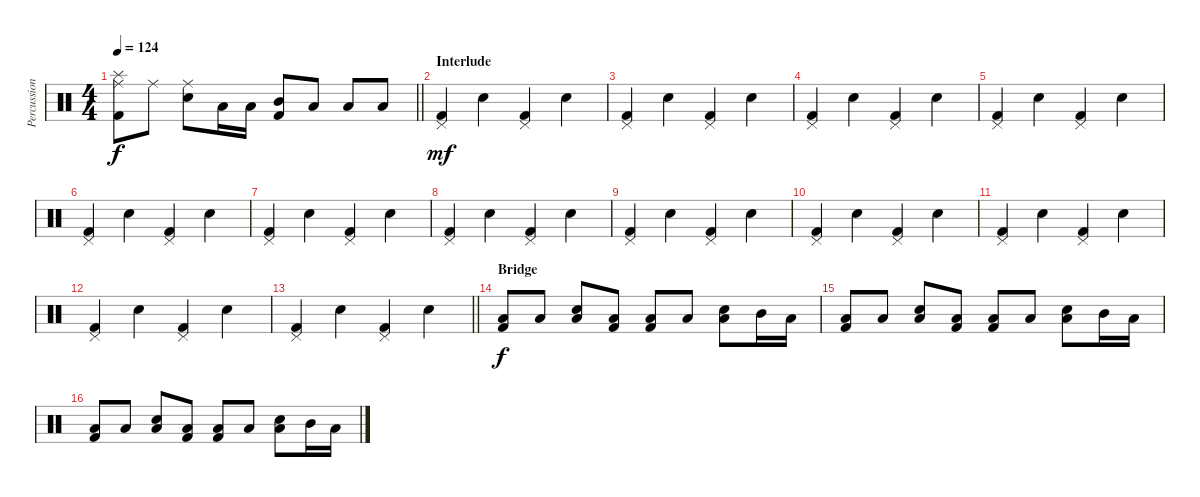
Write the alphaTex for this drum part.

\track ("Percussioni" "Percussion") {instrument percussion}
\staff {score}
\articulation defaults
\ts (4 4)
\tempo 124
\clef neutral
\barLineRight lightlight
\ks c
("Ride (middle)" "Splash (hit)" "Kick (hit) 2").8{dy f} "Ride (middle)".8 ("Ride (middle)" "Snare (hit) 2").8 "Low Floor Tom (hit)".16 "Low Tom (hit)".16 ("Mid Tom (hit)" "Kick (hit) 2").8 "Low Tom (hit)".8 "Low Tom (hit)".8 "Low Floor Tom (hit)".8 |
\section ("" "Interlude")
("Pedal Hi-Hat (hit)" "Kick (hit) 2").4{dy mf} "Snare (hit) 2".4 ("Pedal Hi-Hat (hit)" "Kick (hit) 2").4 "Snare (hit) 2".4 |
("Pedal Hi-Hat (hit)" "Kick (hit) 2").4 "Snare (hit) 2".4 ("Pedal Hi-Hat (hit)" "Kick (hit) 2").4 "Snare (hit) 2".4 |
("Pedal Hi-Hat (hit)" "Kick (hit) 2").4 "Snare (hit) 2".4 ("Pedal Hi-Hat (hit)" "Kick (hit) 2").4 "Snare (hit) 2".4 |
("Pedal Hi-Hat (hit)" "Kick (hit) 2").4 "Snare (hit) 2".4 ("Pedal Hi-Hat (hit)" "Kick (hit) 2").4 "Snare (hit) 2".4 |
("Pedal Hi-Hat (hit)" "Kick (hit) 2").4 "Snare (hit) 2".4 ("Pedal Hi-Hat (hit)" "Kick (hit) 2").4 "Snare (hit) 2".4 |
("Pedal Hi-Hat (hit)" "Kick (hit) 2").4 "Snare (hit) 2".4 ("Pedal Hi-Hat (hit)" "Kick (hit) 2").4 "Snare (hit) 2".4 |
("Pedal Hi-Hat (hit)" "Kick (hit) 2").4 "Snare (hit) 2".4 ("Pedal Hi-Hat (hit)" "Kick (hit) 2").4 "Snare (hit) 2".4 |
("Pedal Hi-Hat (hit)" "Kick (hit) 2").4 "Snare (hit) 2".4 ("Pedal Hi-Hat (hit)" "Kick (hit) 2").4 "Snare (hit) 2".4 |
("Pedal Hi-Hat (hit)" "Kick (hit) 2").4 "Snare (hit) 2".4 ("Pedal Hi-Hat (hit)" "Kick (hit) 2").4 "Snare (hit) 2".4 |
("Pedal Hi-Hat (hit)" "Kick (hit) 2").4 "Snare (hit) 2".4 ("Pedal Hi-Hat (hit)" "Kick (hit) 2").4 "Snare (hit) 2".4 |
("Pedal Hi-Hat (hit)" "Kick (hit) 2").4 "Snare (hit) 2".4 ("Pedal Hi-Hat (hit)" "Kick (hit) 2").4 "Snare (hit) 2".4 |
\barLineRight lightlight
("Pedal Hi-Hat (hit)" "Kick (hit) 2").4 "Snare (hit) 2".4 ("Pedal Hi-Hat (hit)" "Kick (hit) 2").4 "Snare (hit) 2".4 |
\section ("" "Bridge")
("Low Floor Tom (hit)" "Kick (hit) 2").8{dy f} "Low Floor Tom (hit)".8 ("Snare (hit) 2" "Low Floor Tom (hit)").8 ("Low Floor Tom (hit)" "Kick (hit) 2").8 ("Low Floor Tom (hit)" "Kick (hit) 2").8 "Low Floor Tom (hit)".8 ("Snare (hit) 2" "Low Floor Tom (hit)").8 "Mid Tom (hit)".16 "Low Floor Tom (hit)".16 |
("Low Floor Tom (hit)" "Kick (hit) 2").8 "Low Floor Tom (hit)".8 ("Snare (hit) 2" "Low Floor Tom (hit)").8 ("Low Floor Tom (hit)" "Kick (hit) 2").8 ("Low Floor Tom (hit)" "Kick (hit) 2").8 "Low Floor Tom (hit)".8 ("Snare (hit) 2" "Low Floor Tom (hit)").8 "Mid Tom (hit)".16 "Low Floor Tom (hit)".16 |
("Low Floor Tom (hit)" "Kick (hit) 2").8 "Low Floor Tom (hit)".8 ("Snare (hit) 2" "Low Floor Tom (hit)").8 ("Low Floor Tom (hit)" "Kick (hit) 2").8 ("Low Floor Tom (hit)" "Kick (hit) 2").8 "Low Floor Tom (hit)".8 ("Snare (hit) 2" "Low Floor Tom (hit)").8 "Mid Tom (hit)".16 "Low Floor Tom (hit)".16
